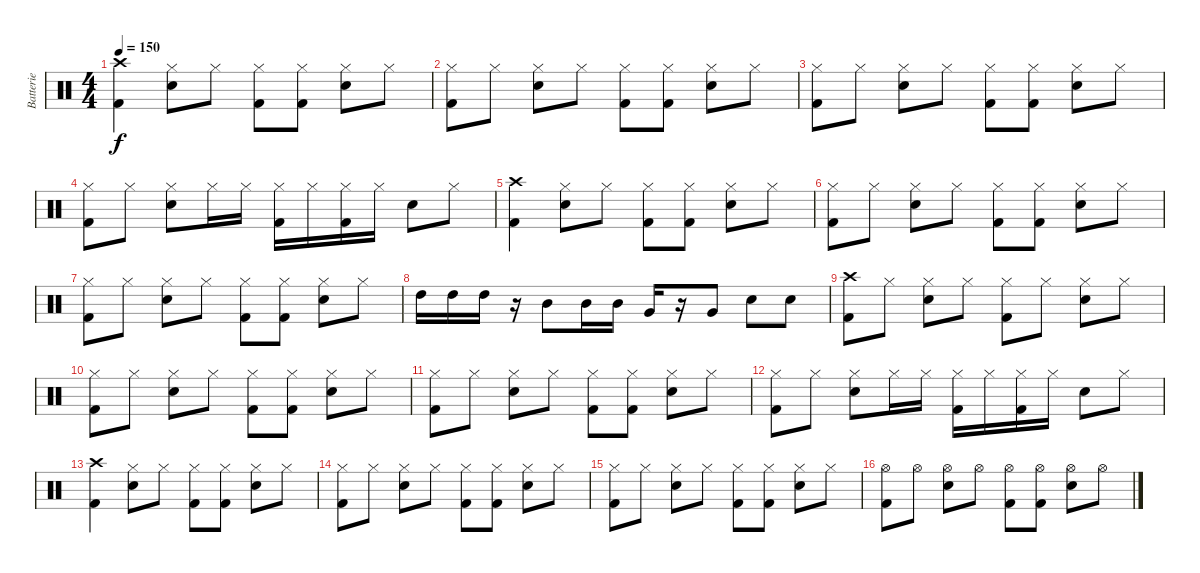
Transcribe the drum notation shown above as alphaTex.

\track ("Batterie" "Batterie") {instrument percussion}
\staff {score}
\articulation defaults
\ts (4 4)
\tempo 150
\clef neutral
\ks c
("Crash high (hit)" "Kick (hit) 2").4{dy f} ("Hi-Hat (closed)" "Snare (hit) 2").8 "Hi-Hat (closed)".8 ("Hi-Hat (closed)" "Kick (hit) 2").8 ("Hi-Hat (closed)" "Kick (hit) 2").8 ("Hi-Hat (closed)" "Snare (hit) 2").8 "Hi-Hat (closed)".8 |
("Hi-Hat (closed)" "Kick (hit) 2").8 "Hi-Hat (closed)".8 ("Hi-Hat (closed)" "Snare (hit) 2").8 "Hi-Hat (closed)".8 ("Hi-Hat (closed)" "Kick (hit) 2").8 ("Hi-Hat (closed)" "Kick (hit) 2").8 ("Hi-Hat (closed)" "Snare (hit) 2").8 "Hi-Hat (closed)".8 |
("Hi-Hat (closed)" "Kick (hit) 2").8 "Hi-Hat (closed)".8 ("Hi-Hat (closed)" "Snare (hit) 2").8 "Hi-Hat (closed)".8 ("Hi-Hat (closed)" "Kick (hit) 2").8 ("Hi-Hat (closed)" "Kick (hit) 2").8 ("Hi-Hat (closed)" "Snare (hit) 2").8 "Hi-Hat (closed)".8 |
("Hi-Hat (closed)" "Kick (hit) 2").8 "Hi-Hat (closed)".8 ("Hi-Hat (closed)" "Snare (hit) 2").8 "Hi-Hat (closed)".16 "Hi-Hat (closed)".16 ("Hi-Hat (closed)" "Kick (hit) 2").16 "Hi-Hat (closed)".16 ("Hi-Hat (closed)" "Kick (hit) 2").16 "Hi-Hat (closed)".16 "Snare (hit) 2".8 "Hi-Hat (closed)".8 |
("Crash high (hit)" "Kick (hit) 2").4 ("Hi-Hat (closed)" "Snare (hit) 2").8 "Hi-Hat (closed)".8 ("Hi-Hat (closed)" "Kick (hit) 2").8 ("Hi-Hat (closed)" "Kick (hit) 2").8 ("Hi-Hat (closed)" "Snare (hit) 2").8 "Hi-Hat (closed)".8 |
("Hi-Hat (closed)" "Kick (hit) 2").8 "Hi-Hat (closed)".8 ("Hi-Hat (closed)" "Snare (hit) 2").8 "Hi-Hat (closed)".8 ("Hi-Hat (closed)" "Kick (hit) 2").8 ("Hi-Hat (closed)" "Kick (hit) 2").8 ("Hi-Hat (closed)" "Snare (hit) 2").8 "Hi-Hat (closed)".8 |
("Hi-Hat (closed)" "Kick (hit) 2").8 "Hi-Hat (closed)".8 ("Hi-Hat (closed)" "Snare (hit) 2").8 "Hi-Hat (closed)".8 ("Hi-Hat (closed)" "Kick (hit) 2").8 ("Hi-Hat (closed)" "Kick (hit) 2").8 ("Hi-Hat (closed)" "Snare (hit) 2").8 "Hi-Hat (closed)".8 |
"High Tom (hit)".16 "High Tom (hit)".16 "High Tom (hit)".16 r.16 "Mid Tom (hit)".8 "Mid Tom (hit)".16 "Mid Tom (hit)".16 "Very Low Tom (hit)".16 r.16 "Very Low Tom (hit)".8 "Snare (hit) 2".8 "Snare (hit) 2".8 |
("Crash high (hit)" "Kick (hit) 2").8 "Hi-Hat (closed)".8 ("Hi-Hat (closed)" "Snare (hit) 2").8 "Hi-Hat (closed)".8 ("Hi-Hat (closed)" "Kick (hit) 2").8 "Hi-Hat (closed)".8 ("Hi-Hat (closed)" "Snare (hit) 2").8 "Hi-Hat (closed)".8 |
("Hi-Hat (closed)" "Kick (hit) 2").8 "Hi-Hat (closed)".8 ("Hi-Hat (closed)" "Snare (hit) 2").8 "Hi-Hat (closed)".8 ("Hi-Hat (closed)" "Kick (hit) 2").8 ("Hi-Hat (closed)" "Kick (hit) 2").8 ("Hi-Hat (closed)" "Snare (hit) 2").8 "Hi-Hat (closed)".8 |
("Hi-Hat (closed)" "Kick (hit) 2").8 "Hi-Hat (closed)".8 ("Hi-Hat (closed)" "Snare (hit) 2").8 "Hi-Hat (closed)".8 ("Hi-Hat (closed)" "Kick (hit) 2").8 ("Hi-Hat (closed)" "Kick (hit) 2").8 ("Hi-Hat (closed)" "Snare (hit) 2").8 "Hi-Hat (closed)".8 |
("Hi-Hat (closed)" "Kick (hit) 2").8 "Hi-Hat (closed)".8 ("Hi-Hat (closed)" "Snare (hit) 2").8 "Hi-Hat (closed)".16 "Hi-Hat (closed)".16 ("Hi-Hat (closed)" "Kick (hit) 2").16 "Hi-Hat (closed)".16 ("Hi-Hat (closed)" "Kick (hit) 2").16 "Hi-Hat (closed)".16 "Snare (hit) 2".8 "Hi-Hat (closed)".8 |
("Crash high (hit)" "Kick (hit) 2").4 ("Hi-Hat (closed)" "Snare (hit) 2").8 "Hi-Hat (closed)".8 ("Hi-Hat (closed)" "Kick (hit) 2").8 ("Hi-Hat (closed)" "Kick (hit) 2").8 ("Hi-Hat (closed)" "Snare (hit) 2").8 "Hi-Hat (closed)".8 |
("Hi-Hat (closed)" "Kick (hit) 2").8 "Hi-Hat (closed)".8 ("Hi-Hat (closed)" "Snare (hit) 2").8 "Hi-Hat (closed)".8 ("Hi-Hat (closed)" "Kick (hit) 2").8 ("Hi-Hat (closed)" "Kick (hit) 2").8 ("Hi-Hat (closed)" "Snare (hit) 2").8 "Hi-Hat (closed)".8 |
("Hi-Hat (closed)" "Kick (hit) 2").8 "Hi-Hat (closed)".8 ("Hi-Hat (closed)" "Snare (hit) 2").8 "Hi-Hat (closed)".8 ("Hi-Hat (closed)" "Kick (hit) 2").8 ("Hi-Hat (closed)" "Kick (hit) 2").8 ("Hi-Hat (closed)" "Snare (hit) 2").8 "Hi-Hat (closed)".8 |
("Hi-Hat (open)" "Kick (hit) 2").8 "Hi-Hat (open)".8 ("Hi-Hat (open)" "Snare (hit) 2").8 "Hi-Hat (open)".8 ("Hi-Hat (open)" "Kick (hit) 2").8 ("Hi-Hat (open)" "Kick (hit) 2").8 ("Hi-Hat (open)" "Snare (hit) 2").8 "Hi-Hat (open)".8
